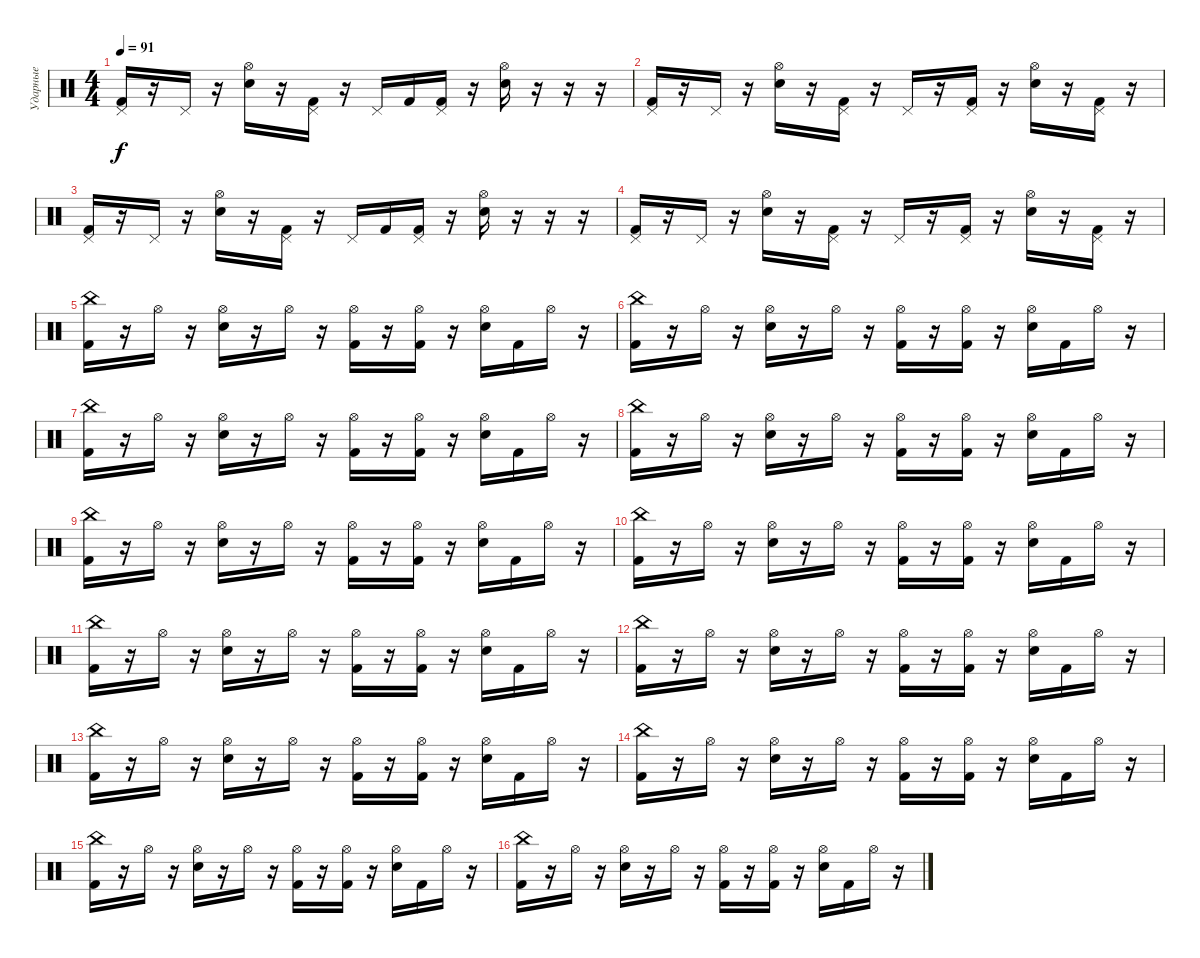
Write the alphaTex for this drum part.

\track ("Ударные" "Ударные") {instrument percussion}
\staff {score}
\articulation defaults
\ts (4 4)
\tempo 91
\clef neutral
\ks c
("Pedal Hi-Hat (hit)" "Kick (hit) 2").16{dy f} r.16 "Pedal Hi-Hat (hit)".16 r.16 ("Hi-Hat (open)" "Snare (hit) 2").16 r.16 ("Pedal Hi-Hat (hit)" "Kick (hit) 2").16 r.16 "Pedal Hi-Hat (hit)".16 "Kick (hit) 2".16 ("Pedal Hi-Hat (hit)" "Kick (hit) 2").16 r.16 ("Hi-Hat (open)" "Snare (hit) 2").16 r.16 r.16 r.16 |
("Pedal Hi-Hat (hit)" "Kick (hit) 2").16 r.16 "Pedal Hi-Hat (hit)".16 r.16 ("Hi-Hat (open)" "Snare (hit) 2").16 r.16 ("Pedal Hi-Hat (hit)" "Kick (hit) 2").16 r.16 "Pedal Hi-Hat (hit)".16 r.16 ("Pedal Hi-Hat (hit)" "Kick (hit) 2").16 r.16 ("Hi-Hat (open)" "Snare (hit) 2").16 r.16 ("Pedal Hi-Hat (hit)" "Kick (hit) 2").16 r.16 |
("Pedal Hi-Hat (hit)" "Kick (hit) 2").16 r.16 "Pedal Hi-Hat (hit)".16 r.16 ("Hi-Hat (open)" "Snare (hit) 2").16 r.16 ("Pedal Hi-Hat (hit)" "Kick (hit) 2").16 r.16 "Pedal Hi-Hat (hit)".16 "Kick (hit) 2".16 ("Pedal Hi-Hat (hit)" "Kick (hit) 2").16 r.16 ("Hi-Hat (open)" "Snare (hit) 2").16 r.16 r.16 r.16 |
("Pedal Hi-Hat (hit)" "Kick (hit) 2").16 r.16 "Pedal Hi-Hat (hit)".16 r.16 ("Hi-Hat (open)" "Snare (hit) 2").16 r.16 ("Pedal Hi-Hat (hit)" "Kick (hit) 2").16 r.16 "Pedal Hi-Hat (hit)".16 r.16 ("Pedal Hi-Hat (hit)" "Kick (hit) 2").16 r.16 ("Hi-Hat (open)" "Snare (hit) 2").16 r.16 ("Pedal Hi-Hat (hit)" "Kick (hit) 2").16 r.16 |
("China (hit)" "Kick (hit) 2").16 r.16 "Hi-Hat (open)".16 r.16 ("Hi-Hat (open)" "Snare (hit) 2").16 r.16 "Hi-Hat (open)".16 r.16 ("Hi-Hat (open)" "Kick (hit) 2").16 r.16 ("Hi-Hat (open)" "Kick (hit) 2").16 r.16 ("Hi-Hat (open)" "Snare (hit) 2").16 "Kick (hit) 2".16 "Hi-Hat (open)".16 r.16 |
("China (hit)" "Kick (hit) 2").16 r.16 "Hi-Hat (open)".16 r.16 ("Hi-Hat (open)" "Snare (hit) 2").16 r.16 "Hi-Hat (open)".16 r.16 ("Hi-Hat (open)" "Kick (hit) 2").16 r.16 ("Hi-Hat (open)" "Kick (hit) 2").16 r.16 ("Hi-Hat (open)" "Snare (hit) 2").16 "Kick (hit) 2".16 "Hi-Hat (open)".16 r.16 |
("China (hit)" "Kick (hit) 2").16 r.16 "Hi-Hat (open)".16 r.16 ("Hi-Hat (open)" "Snare (hit) 2").16 r.16 "Hi-Hat (open)".16 r.16 ("Hi-Hat (open)" "Kick (hit) 2").16 r.16 ("Hi-Hat (open)" "Kick (hit) 2").16 r.16 ("Hi-Hat (open)" "Snare (hit) 2").16 "Kick (hit) 2".16 "Hi-Hat (open)".16 r.16 |
("China (hit)" "Kick (hit) 2").16 r.16 "Hi-Hat (open)".16 r.16 ("Hi-Hat (open)" "Snare (hit) 2").16 r.16 "Hi-Hat (open)".16 r.16 ("Hi-Hat (open)" "Kick (hit) 2").16 r.16 ("Hi-Hat (open)" "Kick (hit) 2").16 r.16 ("Hi-Hat (open)" "Snare (hit) 2").16 "Kick (hit) 2".16 "Hi-Hat (open)".16 r.16 |
("China (hit)" "Kick (hit) 2").16 r.16 "Hi-Hat (open)".16 r.16 ("Hi-Hat (open)" "Snare (hit) 2").16 r.16 "Hi-Hat (open)".16 r.16 ("Hi-Hat (open)" "Kick (hit) 2").16 r.16 ("Hi-Hat (open)" "Kick (hit) 2").16 r.16 ("Hi-Hat (open)" "Snare (hit) 2").16 "Kick (hit) 2".16 "Hi-Hat (open)".16 r.16 |
("China (hit)" "Kick (hit) 2").16 r.16 "Hi-Hat (open)".16 r.16 ("Hi-Hat (open)" "Snare (hit) 2").16 r.16 "Hi-Hat (open)".16 r.16 ("Hi-Hat (open)" "Kick (hit) 2").16 r.16 ("Hi-Hat (open)" "Kick (hit) 2").16 r.16 ("Hi-Hat (open)" "Snare (hit) 2").16 "Kick (hit) 2".16 "Hi-Hat (open)".16 r.16 |
("China (hit)" "Kick (hit) 2").16 r.16 "Hi-Hat (open)".16 r.16 ("Hi-Hat (open)" "Snare (hit) 2").16 r.16 "Hi-Hat (open)".16 r.16 ("Hi-Hat (open)" "Kick (hit) 2").16 r.16 ("Hi-Hat (open)" "Kick (hit) 2").16 r.16 ("Hi-Hat (open)" "Snare (hit) 2").16 "Kick (hit) 2".16 "Hi-Hat (open)".16 r.16 |
("China (hit)" "Kick (hit) 2").16 r.16 "Hi-Hat (open)".16 r.16 ("Hi-Hat (open)" "Snare (hit) 2").16 r.16 "Hi-Hat (open)".16 r.16 ("Hi-Hat (open)" "Kick (hit) 2").16 r.16 ("Hi-Hat (open)" "Kick (hit) 2").16 r.16 ("Hi-Hat (open)" "Snare (hit) 2").16 "Kick (hit) 2".16 "Hi-Hat (open)".16 r.16 |
("China (hit)" "Kick (hit) 2").16 r.16 "Hi-Hat (open)".16 r.16 ("Hi-Hat (open)" "Snare (hit) 2").16 r.16 "Hi-Hat (open)".16 r.16 ("Hi-Hat (open)" "Kick (hit) 2").16 r.16 ("Hi-Hat (open)" "Kick (hit) 2").16 r.16 ("Hi-Hat (open)" "Snare (hit) 2").16 "Kick (hit) 2".16 "Hi-Hat (open)".16 r.16 |
("China (hit)" "Kick (hit) 2").16 r.16 "Hi-Hat (open)".16 r.16 ("Hi-Hat (open)" "Snare (hit) 2").16 r.16 "Hi-Hat (open)".16 r.16 ("Hi-Hat (open)" "Kick (hit) 2").16 r.16 ("Hi-Hat (open)" "Kick (hit) 2").16 r.16 ("Hi-Hat (open)" "Snare (hit) 2").16 "Kick (hit) 2".16 "Hi-Hat (open)".16 r.16 |
("China (hit)" "Kick (hit) 2").16 r.16 "Hi-Hat (open)".16 r.16 ("Hi-Hat (open)" "Snare (hit) 2").16 r.16 "Hi-Hat (open)".16 r.16 ("Hi-Hat (open)" "Kick (hit) 2").16 r.16 ("Hi-Hat (open)" "Kick (hit) 2").16 r.16 ("Hi-Hat (open)" "Snare (hit) 2").16 "Kick (hit) 2".16 "Hi-Hat (open)".16 r.16 |
("China (hit)" "Kick (hit) 2").16 r.16 "Hi-Hat (open)".16 r.16 ("Hi-Hat (open)" "Snare (hit) 2").16 r.16 "Hi-Hat (open)".16 r.16 ("Hi-Hat (open)" "Kick (hit) 2").16 r.16 ("Hi-Hat (open)" "Kick (hit) 2").16 r.16 ("Hi-Hat (open)" "Snare (hit) 2").16 "Kick (hit) 2".16 "Hi-Hat (open)".16 r.16
